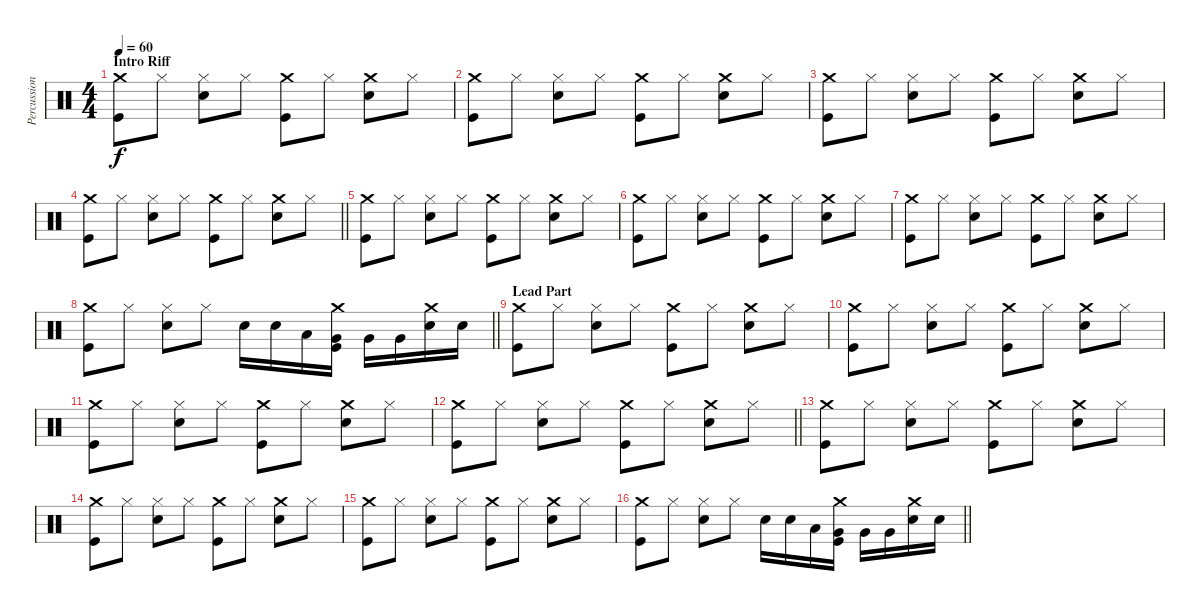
\track ("Percussion" "Percussion") {instrument percussion}
\staff {score}
\articulation defaults
\ts (4 4)
\section ("" "Intro Riff")
\tempo 60
\clef neutral
\ks c
("Crash medium (hit)" "Kick (hit)").8{dy f} "Hi-Hat (closed)".8 ("Hi-Hat (closed)" "Snare (hit) 2").8 "Hi-Hat (closed)".8 ("Crash medium (hit)" "Kick (hit)").8 "Hi-Hat (closed)".8 ("Crash medium (hit)" "Snare (hit) 2").8 "Hi-Hat (closed)".8 |
("Crash medium (hit)" "Kick (hit)").8 "Hi-Hat (closed)".8 ("Hi-Hat (closed)" "Snare (hit) 2").8 "Hi-Hat (closed)".8 ("Crash medium (hit)" "Kick (hit)").8 "Hi-Hat (closed)".8 ("Crash medium (hit)" "Snare (hit) 2").8 "Hi-Hat (closed)".8 |
("Crash medium (hit)" "Kick (hit)").8 "Hi-Hat (closed)".8 ("Hi-Hat (closed)" "Snare (hit) 2").8 "Hi-Hat (closed)".8 ("Crash medium (hit)" "Kick (hit)").8 "Hi-Hat (closed)".8 ("Crash medium (hit)" "Snare (hit) 2").8 "Hi-Hat (closed)".8 |
\barLineRight lightlight
("Crash medium (hit)" "Kick (hit)").8 "Hi-Hat (closed)".8 ("Hi-Hat (closed)" "Snare (hit) 2").8 "Hi-Hat (closed)".8 ("Crash medium (hit)" "Kick (hit)").8 "Hi-Hat (closed)".8 ("Crash medium (hit)" "Snare (hit) 2").8 "Hi-Hat (closed)".8 |
("Crash medium (hit)" "Kick (hit)").8 "Hi-Hat (closed)".8 ("Hi-Hat (closed)" "Snare (hit) 2").8 "Hi-Hat (closed)".8 ("Crash medium (hit)" "Kick (hit)").8 "Hi-Hat (closed)".8 ("Crash medium (hit)" "Snare (hit) 2").8 "Hi-Hat (closed)".8 |
("Crash medium (hit)" "Kick (hit)").8 "Hi-Hat (closed)".8 ("Hi-Hat (closed)" "Snare (hit) 2").8 "Hi-Hat (closed)".8 ("Crash medium (hit)" "Kick (hit)").8 "Hi-Hat (closed)".8 ("Crash medium (hit)" "Snare (hit) 2").8 "Hi-Hat (closed)".8 |
("Crash medium (hit)" "Kick (hit)").8 "Hi-Hat (closed)".8 ("Hi-Hat (closed)" "Snare (hit) 2").8 "Hi-Hat (closed)".8 ("Crash medium (hit)" "Kick (hit)").8 "Hi-Hat (closed)".8 ("Crash medium (hit)" "Snare (hit) 2").8 "Hi-Hat (closed)".8 |
\barLineRight lightlight
("Crash medium (hit)" "Kick (hit)").8 "Hi-Hat (closed)".8 ("Hi-Hat (closed)" "Snare (hit) 2").8 "Hi-Hat (closed)".8 "Snare (hit) 2".16 "Snare (hit) 2".16 "Low Tom (hit)".16 ("Crash medium (hit)" "Very Low Tom (hit)" "Kick (hit)").16 "Very Low Tom (hit)".16 "Very Low Tom (hit)".16 ("Crash medium (hit)" "Snare (hit) 2").16 "Snare (hit) 2".16 |
\section ("" "Lead Part")
("Crash medium (hit)" "Kick (hit)").8 "Hi-Hat (closed)".8 ("Hi-Hat (closed)" "Snare (hit) 2").8 "Hi-Hat (closed)".8 ("Crash medium (hit)" "Kick (hit)").8 "Hi-Hat (closed)".8 ("Crash medium (hit)" "Snare (hit) 2").8 "Hi-Hat (closed)".8 |
("Crash medium (hit)" "Kick (hit)").8 "Hi-Hat (closed)".8 ("Hi-Hat (closed)" "Snare (hit) 2").8 "Hi-Hat (closed)".8 ("Crash medium (hit)" "Kick (hit)").8 "Hi-Hat (closed)".8 ("Crash medium (hit)" "Snare (hit) 2").8 "Hi-Hat (closed)".8 |
("Crash medium (hit)" "Kick (hit)").8 "Hi-Hat (closed)".8 ("Hi-Hat (closed)" "Snare (hit) 2").8 "Hi-Hat (closed)".8 ("Crash medium (hit)" "Kick (hit)").8 "Hi-Hat (closed)".8 ("Crash medium (hit)" "Snare (hit) 2").8 "Hi-Hat (closed)".8 |
\barLineRight lightlight
("Crash medium (hit)" "Kick (hit)").8 "Hi-Hat (closed)".8 ("Hi-Hat (closed)" "Snare (hit) 2").8 "Hi-Hat (closed)".8 ("Crash medium (hit)" "Kick (hit)").8 "Hi-Hat (closed)".8 ("Crash medium (hit)" "Snare (hit) 2").8 "Hi-Hat (closed)".8 |
("Crash medium (hit)" "Kick (hit)").8 "Hi-Hat (closed)".8 ("Hi-Hat (closed)" "Snare (hit) 2").8 "Hi-Hat (closed)".8 ("Crash medium (hit)" "Kick (hit)").8 "Hi-Hat (closed)".8 ("Crash medium (hit)" "Snare (hit) 2").8 "Hi-Hat (closed)".8 |
("Crash medium (hit)" "Kick (hit)").8 "Hi-Hat (closed)".8 ("Hi-Hat (closed)" "Snare (hit) 2").8 "Hi-Hat (closed)".8 ("Crash medium (hit)" "Kick (hit)").8 "Hi-Hat (closed)".8 ("Crash medium (hit)" "Snare (hit) 2").8 "Hi-Hat (closed)".8 |
("Crash medium (hit)" "Kick (hit)").8 "Hi-Hat (closed)".8 ("Hi-Hat (closed)" "Snare (hit) 2").8 "Hi-Hat (closed)".8 ("Crash medium (hit)" "Kick (hit)").8 "Hi-Hat (closed)".8 ("Crash medium (hit)" "Snare (hit) 2").8 "Hi-Hat (closed)".8 |
\barLineRight lightlight
("Crash medium (hit)" "Kick (hit)").8 "Hi-Hat (closed)".8 ("Hi-Hat (closed)" "Snare (hit) 2").8 "Hi-Hat (closed)".8 "Snare (hit) 2".16 "Snare (hit) 2".16 "Low Tom (hit)".16 ("Crash medium (hit)" "Very Low Tom (hit)" "Kick (hit)").16 "Very Low Tom (hit)".16 "Very Low Tom (hit)".16 ("Crash medium (hit)" "Snare (hit) 2").16 "Snare (hit) 2".16
